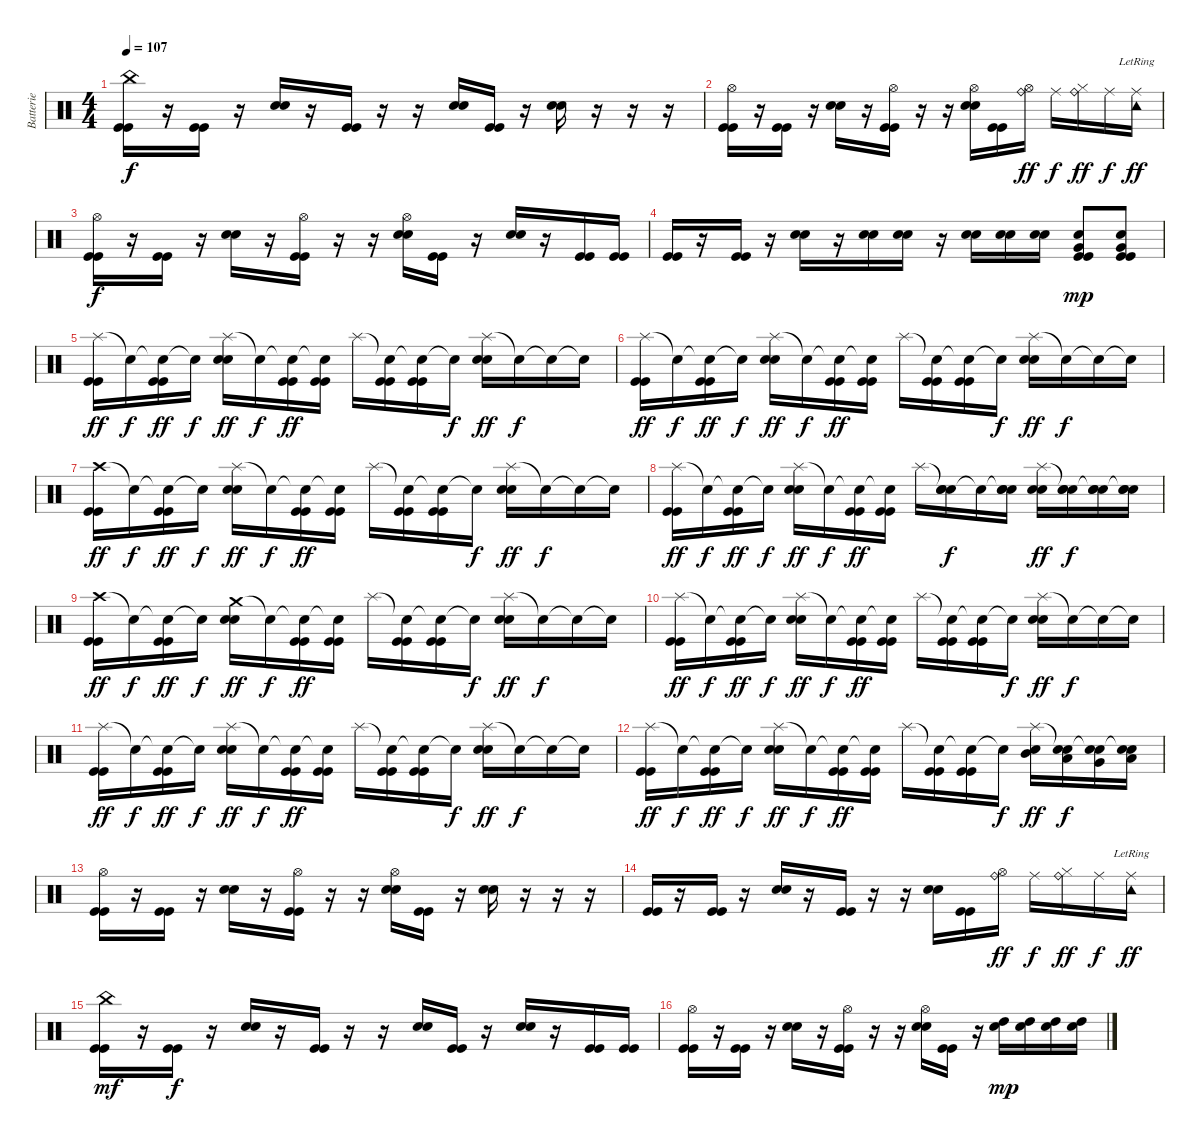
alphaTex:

\track ("Batterie" "Batterie") {instrument percussion}
\staff {score}
\articulation defaults
\ts (4 4)
\tempo 107
\clef neutral
\ks c
("China (hit)" "Kick (hit)" "Kick (hit)").16{dy f} r.16 ("Kick (hit)" "Kick (hit)").16 r.16 ("Snare (hit) 2" "Snare (hit) 2").16 r.16 ("Kick (hit)" "Kick (hit)").16 r.16 r.16 ("Snare (hit) 2" "Snare (hit) 2").16 ("Kick (hit)" "Kick (hit)").16 r.16 ("Snare (hit) 2" "Snare (hit) 2").16 r.16 r.16 r.16 |
("Hi-Hat (open)" "Kick (hit)" "Kick (hit)").16 r.16 ("Kick (hit)" "Kick (hit)").16 r.16 ("Snare (hit) 2" "Snare (hit) 2").16 r.16 ("Hi-Hat (open)" "Kick (hit)" "Kick (hit)").16 r.16 r.16 ("Hi-Hat (open)" "Snare (hit) 2" "Snare (hit) 2").16 ("Kick (hit)" "Kick (hit)").16 ("Hi-Hat (open)" "Ride (bell)").16{dy ff} "Ride (middle)".16{dy f} ("Ride (bell)" "Hi-Hat (closed)").16{dy ff} "Ride (middle)".16{dy f} ("Tambourine (hit)"{lr} "Ride (middle)").16{dy ff} |
("Hi-Hat (open)" "Kick (hit)" "Kick (hit)").16{dy f} r.16 ("Kick (hit)" "Kick (hit)").16 r.16 ("Snare (hit) 2" "Snare (hit) 2").16 r.16 ("Hi-Hat (open)" "Kick (hit)" "Kick (hit)").16 r.16 r.16 ("Hi-Hat (open)" "Snare (hit) 2" "Snare (hit) 2").16 ("Kick (hit)" "Kick (hit)").16 r.16 ("Snare (hit) 2" "Snare (hit) 2").16 r.16 ("Kick (hit)" "Kick (hit)").16 ("Kick (hit)" "Kick (hit)").16 |
("Kick (hit)" "Kick (hit)").16 r.16 ("Kick (hit)" "Kick (hit)").16 r.16 ("Snare (hit) 2" "Snare (hit) 2").16 r.16 ("Snare (hit) 2" "Snare (hit) 2").16 ("Snare (hit) 2" "Snare (hit) 2").16 r.16 ("Snare (hit) 2" "Snare (hit) 2").16 ("Snare (hit) 2" "Snare (hit) 2").16 ("Snare (hit) 2" "Snare (hit) 2").16 ("Very Low Tom (hit)" "Electric Snare (hit)" "Kick (hit)" "Kick (hit)").8{dy mp} ("Very Low Tom (hit)" "Electric Snare (hit)" "Kick (hit)" "Kick (hit)").8 |
("Splash (hit)" "Kick (hit)" "Kick (hit)").16{dy ff} "Snare (hit)"{t}.16{dy f} ("Snare (hit)"{t} "Kick (hit)" "Kick (hit)").16{dy ff} "Snare (hit)"{t}.16{dy f} ("Splash (hit)" "Snare (hit) 2" "Snare (hit) 2").16{dy ff} "Snare (hit)"{t}.16{dy f} ("Snare (hit)"{t} "Kick (hit)" "Kick (hit)").16{dy ff} ("Snare (hit)"{t} "Kick (hit)" "Kick (hit)").16 "Splash (hit)".16 ("Snare (hit)"{t} "Kick (hit)" "Kick (hit)").16 ("Snare (hit)"{t} "Kick (hit)" "Kick (hit)").16 "Snare (hit)"{t}.16{dy f} ("Splash (hit)" "Snare (hit) 2" "Snare (hit) 2").16{dy ff} "Snare (hit)"{t}.16{dy f} "Snare (hit)"{t}.16 "Snare (hit)"{t}.16 |
("Splash (hit)" "Kick (hit)" "Kick (hit)").16{dy ff} "Snare (hit)"{t}.16{dy f} ("Snare (hit)"{t} "Kick (hit)" "Kick (hit)").16{dy ff} "Snare (hit)"{t}.16{dy f} ("Splash (hit)" "Snare (hit) 2" "Snare (hit) 2").16{dy ff} "Snare (hit)"{t}.16{dy f} ("Snare (hit)"{t} "Kick (hit)" "Kick (hit)").16{dy ff} ("Snare (hit)"{t} "Kick (hit)" "Kick (hit)").16 "Splash (hit)".16 ("Snare (hit)"{t} "Kick (hit)" "Kick (hit)").16 ("Snare (hit)"{t} "Kick (hit)" "Kick (hit)").16 "Snare (hit)"{t}.16{dy f} ("Splash (hit)" "Snare (hit) 2" "Snare (hit) 2").16{dy ff} "Snare (hit)"{t}.16{dy f} "Snare (hit)"{t}.16 "Snare (hit)"{t}.16 |
("Crash high (hit)" "Kick (hit)" "Kick (hit)").16{dy ff} "Snare (hit)"{t}.16{dy f} ("Snare (hit)"{t} "Kick (hit)" "Kick (hit)").16{dy ff} "Snare (hit)"{t}.16{dy f} ("Splash (hit)" "Snare (hit) 2" "Snare (hit) 2").16{dy ff} "Snare (hit)"{t}.16{dy f} ("Snare (hit)"{t} "Kick (hit)" "Kick (hit)").16{dy ff} ("Snare (hit)"{t} "Kick (hit)" "Kick (hit)").16 "Splash (hit)".16 ("Snare (hit)"{t} "Kick (hit)" "Kick (hit)").16 ("Snare (hit)"{t} "Kick (hit)" "Kick (hit)").16 "Snare (hit)"{t}.16{dy f} ("Splash (hit)" "Snare (hit) 2" "Snare (hit) 2").16{dy ff} "Snare (hit)"{t}.16{dy f} "Snare (hit)"{t}.16 "Snare (hit)"{t}.16 |
("Splash (hit)" "Kick (hit)" "Kick (hit)").16{dy ff} "Snare (hit)"{t}.16{dy f} ("Snare (hit)"{t} "Kick (hit)" "Kick (hit)").16{dy ff} "Snare (hit)"{t}.16{dy f} ("Splash (hit)" "Snare (hit) 2" "Snare (hit) 2").16{dy ff} "Snare (hit)"{t}.16{dy f} ("Snare (hit)"{t} "Kick (hit)" "Kick (hit)").16{dy ff} ("Snare (hit)"{t} "Kick (hit)" "Kick (hit)").16 "Splash (hit)".16 ("Snare (hit)"{t} "Snare (hit) 2" "Snare (hit) 2").16{dy f} "Snare (hit)"{t}.16 ("Snare (hit)"{t} "Snare (hit) 2" "Snare (hit) 2").16 ("Splash (hit)" "Snare (hit) 2" "Snare (hit) 2").16{dy ff} ("Snare (hit)"{t} "Snare (hit) 2" "Snare (hit) 2").16{dy f} ("Snare (hit)"{t} "Snare (hit) 2" "Snare (hit) 2").16 ("Snare (hit)"{t} "Snare (hit) 2" "Snare (hit) 2").16 |
("Crash high (hit)" "Kick (hit)" "Kick (hit)").16{dy ff} "Snare (hit)"{t}.16{dy f} ("Snare (hit)"{t} "Kick (hit)" "Kick (hit)").16{dy ff} "Snare (hit)"{t}.16{dy f} ("Crash medium (hit)" "Snare (hit) 2" "Snare (hit) 2").16{dy ff} "Snare (hit)"{t}.16{dy f} ("Snare (hit)"{t} "Kick (hit)" "Kick (hit)").16{dy ff} ("Snare (hit)"{t} "Kick (hit)" "Kick (hit)").16 "Splash (hit)".16 ("Snare (hit)"{t} "Kick (hit)" "Kick (hit)").16 ("Snare (hit)"{t} "Kick (hit)" "Kick (hit)").16 "Snare (hit)"{t}.16{dy f} ("Splash (hit)" "Snare (hit) 2" "Snare (hit) 2").16{dy ff} "Snare (hit)"{t}.16{dy f} "Snare (hit)"{t}.16 "Snare (hit)"{t}.16 |
("Splash (hit)" "Kick (hit)" "Kick (hit)").16{dy ff} "Snare (hit)"{t}.16{dy f} ("Snare (hit)"{t} "Kick (hit)" "Kick (hit)").16{dy ff} "Snare (hit)"{t}.16{dy f} ("Splash (hit)" "Snare (hit) 2" "Snare (hit) 2").16{dy ff} "Snare (hit)"{t}.16{dy f} ("Snare (hit)"{t} "Kick (hit)" "Kick (hit)").16{dy ff} ("Snare (hit)"{t} "Kick (hit)" "Kick (hit)").16 "Splash (hit)".16 ("Snare (hit)"{t} "Kick (hit)" "Kick (hit)").16 ("Snare (hit)"{t} "Kick (hit)" "Kick (hit)").16 "Snare (hit)"{t}.16{dy f} ("Splash (hit)" "Snare (hit) 2" "Snare (hit) 2").16{dy ff} "Snare (hit)"{t}.16{dy f} "Snare (hit)"{t}.16 "Snare (hit)"{t}.16 |
("Splash (hit)" "Kick (hit)" "Kick (hit)").16{dy ff} "Snare (hit)"{t}.16{dy f} ("Snare (hit)"{t} "Kick (hit)" "Kick (hit)").16{dy ff} "Snare (hit)"{t}.16{dy f} ("Splash (hit)" "Snare (hit) 2" "Snare (hit) 2").16{dy ff} "Snare (hit)"{t}.16{dy f} ("Snare (hit)"{t} "Kick (hit)" "Kick (hit)").16{dy ff} ("Snare (hit)"{t} "Kick (hit)" "Kick (hit)").16 "Splash (hit)".16 ("Snare (hit)"{t} "Kick (hit)" "Kick (hit)").16 ("Snare (hit)"{t} "Kick (hit)" "Kick (hit)").16 "Snare (hit)"{t}.16{dy f} ("Splash (hit)" "Snare (hit) 2" "Snare (hit) 2").16{dy ff} "Snare (hit)"{t}.16{dy f} "Snare (hit)"{t}.16 "Snare (hit)"{t}.16 |
("Splash (hit)" "Kick (hit)" "Kick (hit)").16{dy ff} "Snare (hit)"{t}.16{dy f} ("Snare (hit)"{t} "Kick (hit)" "Kick (hit)").16{dy ff} "Snare (hit)"{t}.16{dy f} ("Splash (hit)" "Snare (hit) 2" "Snare (hit) 2").16{dy ff} "Snare (hit)"{t}.16{dy f} ("Snare (hit)"{t} "Kick (hit)" "Kick (hit)").16{dy ff} ("Snare (hit)"{t} "Kick (hit)" "Kick (hit)").16 "Splash (hit)".16 ("Snare (hit)"{t} "Kick (hit)" "Kick (hit)").16 ("Snare (hit)"{t} "Kick (hit)" "Kick (hit)").16 "Snare (hit)"{t}.16{dy f} ("Splash (hit)" "Mid Tom (hit)" "Electric Snare (hit)").16{dy ff} ("Snare (hit)"{t} "Low Tom (hit)" "Electric Snare (hit)").16{dy f} ("Snare (hit)"{t} "Very Low Tom (hit)" "Electric Snare (hit)").16 ("Snare (hit)"{t} "Low Floor Tom (hit)" "Electric Snare (hit)").16 |
("Hi-Hat (open)" "Kick (hit)" "Kick (hit)").16 r.16 ("Kick (hit)" "Kick (hit)").16 r.16 ("Snare (hit) 2" "Snare (hit) 2").16 r.16 ("Hi-Hat (open)" "Kick (hit)" "Kick (hit)").16 r.16 r.16 ("Hi-Hat (open)" "Snare (hit) 2" "Snare (hit) 2").16 ("Kick (hit)" "Kick (hit)").16 r.16 ("Snare (hit) 2" "Snare (hit) 2").16 r.16 r.16 r.16 |
("Kick (hit)" "Kick (hit)").16 r.16 ("Kick (hit)" "Kick (hit)").16 r.16 ("Snare (hit) 2" "Snare (hit) 2").16 r.16 ("Kick (hit)" "Kick (hit)").16 r.16 r.16 ("Snare (hit) 2" "Snare (hit) 2").16 ("Kick (hit)" "Kick (hit)").16 ("Hi-Hat (open)" "Ride (bell)").16{dy ff} "Ride (middle)".16{dy f} ("Ride (bell)" "Hi-Hat (closed)").16{dy ff} "Ride (middle)".16{dy f} ("Tambourine (hit)"{lr} "Ride (middle)").16{dy ff} |
("China (hit)" "Kick (hit)" "Kick (hit)").16{dy mf} r.16 ("Kick (hit)" "Kick (hit)").16{dy f} r.16 ("Snare (hit) 2" "Snare (hit) 2").16 r.16 ("Kick (hit)" "Kick (hit)").16 r.16 r.16 ("Snare (hit) 2" "Snare (hit) 2").16 ("Kick (hit)" "Kick (hit)").16 r.16 ("Snare (hit) 2" "Snare (hit) 2").16 r.16 ("Kick (hit)" "Kick (hit)").16 ("Kick (hit)" "Kick (hit)").16 |
("Hi-Hat (open)" "Kick (hit)" "Kick (hit)").16 r.16 ("Kick (hit)" "Kick (hit)").16 r.16 ("Snare (hit) 2" "Snare (hit) 2").16 r.16 ("Hi-Hat (open)" "Kick (hit)" "Kick (hit)").16 r.16 r.16 ("Hi-Hat (open)" "Snare (hit) 2" "Snare (hit) 2").16 ("Kick (hit)" "Kick (hit)").16 r.16 ("High Tom (hit)" "Electric Snare (hit)").16{dy mp} ("High Tom (hit)" "Electric Snare (hit)").16 ("High Tom (hit)" "Electric Snare (hit)").16 ("High Tom (hit)" "Electric Snare (hit)").16
